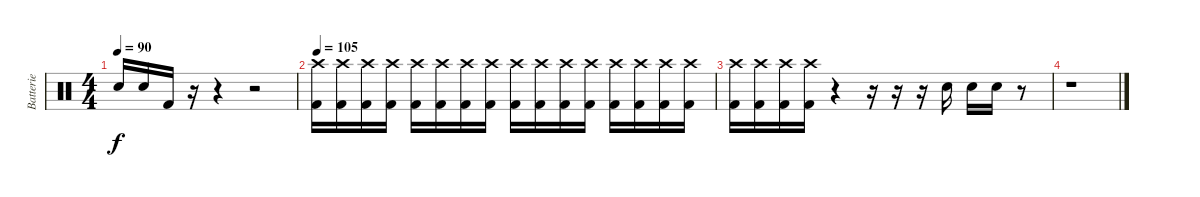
\track ("Batterie" "Batterie") {instrument percussion}
\staff {score}
\articulation defaults
\ts (4 4)
\tempo 90
\clef neutral
\ks c "Snare (hit) 2".16{dy f} "Snare (hit) 2".16 "Kick (hit) 2".16
r.16 r.4 r.2 |
\tempo 105
("Crash high (hit)" "Kick (hit) 2").16 ("Crash high (hit)" "Kick (hit) 2").16 ("Crash high (hit)" "Kick (hit) 2").16 ("Crash high (hit)" "Kick (hit) 2").16 ("Crash high (hit)" "Kick (hit) 2").16 ("Crash high (hit)" "Kick (hit) 2").16 ("Crash high (hit)" "Kick (hit) 2").16 ("Crash high (hit)" "Kick (hit) 2").16 ("Crash high (hit)" "Kick (hit) 2").16 ("Crash high (hit)" "Kick (hit) 2").16 ("Crash high (hit)" "Kick (hit) 2").16 ("Crash high (hit)" "Kick (hit) 2").16 ("Crash high (hit)" "Kick (hit) 2").16 ("Crash high (hit)" "Kick (hit) 2").16 ("Crash high (hit)" "Kick (hit) 2").16 ("Crash high (hit)" "Kick (hit) 2").16 |
("Crash high (hit)" "Kick (hit) 2").16 ("Crash high (hit)" "Kick (hit) 2").16 ("Crash high (hit)" "Kick (hit) 2").16 ("Crash high (hit)" "Kick (hit) 2").16 r.4 r.16 r.16 r.16 "Snare (hit) 2".16 "Snare (hit) 2".16 "Snare (hit) 2".16 r.8 |
r.1
